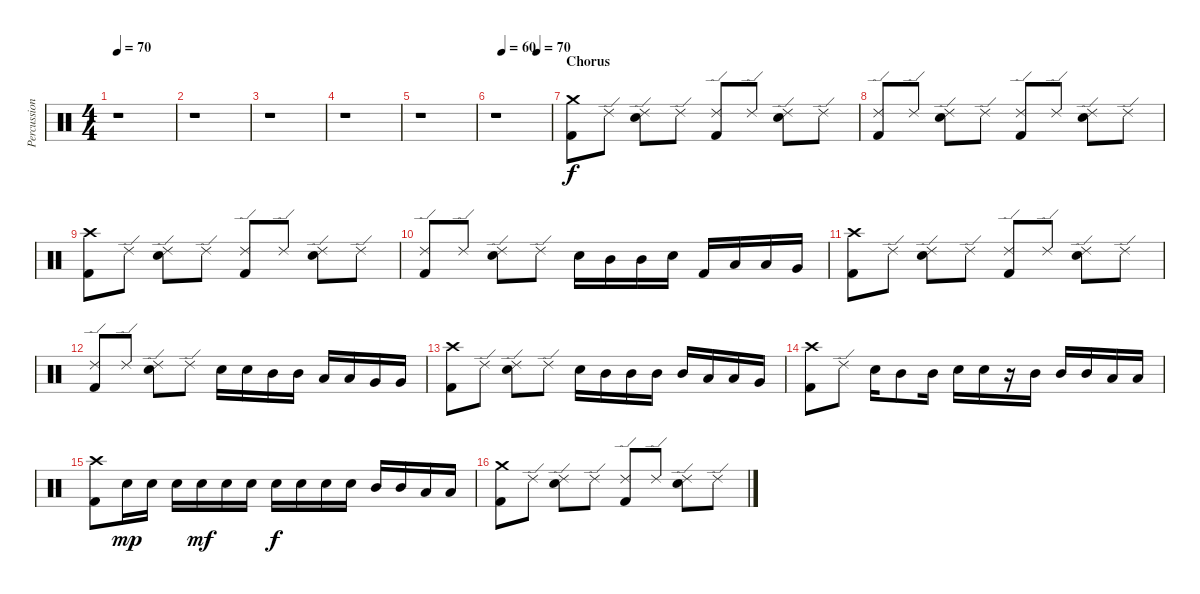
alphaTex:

\track ("Percussion" "Percussion") {instrument percussion}
\staff {score}
\articulation defaults
\ts (4 4)
\tempo 70
\clef neutral
\ks c
r.1{dy f} |
r.1 |
r.1 |
r.1 |
r.1 |
\tempo (60 0.125)
\tempo (70 0.75)
r.1 |
\section ("" "Chorus ")
("Crash medium (hit)" "Kick (hit) 2").8 "Ride (edge) 2".8 ("Ride (edge) 2" "Snare (hit) 2").8 "Ride (edge) 2".8 ("Ride (edge) 2" "Kick (hit) 2").8 "Ride (edge) 2".8 ("Ride (edge) 2" "Snare (hit) 2").8 "Ride (edge) 2".8 |
("Ride (edge) 2" "Kick (hit) 2").8 "Ride (edge) 2".8 ("Ride (edge) 2" "Snare (hit) 2").8 "Ride (edge) 2".8 ("Ride (edge) 2" "Kick (hit) 2").8 "Ride (edge) 2".8 ("Ride (edge) 2" "Snare (hit) 2").8 "Ride (edge) 2".8 |
("Crash high (hit)" "Kick (hit) 2").8 "Ride (edge) 2".8 ("Ride (edge) 2" "Snare (hit) 2").8 "Ride (edge) 2".8 ("Ride (edge) 2" "Kick (hit) 2").8 "Ride (edge) 2".8 ("Ride (edge) 2" "Snare (hit) 2").8 "Ride (edge) 2".8 |
("Ride (edge) 2" "Kick (hit) 2").8 "Ride (edge) 2".8 ("Ride (edge) 2" "Snare (hit) 2").8 "Ride (edge) 2".8 "Snare (hit) 2".16 "Mid Tom (hit)".16 "Mid Tom (hit)".16 "Snare (hit) 2".16 "Kick (hit) 2".16 "Low Tom (hit)".16 "Low Tom (hit)".16 "Very Low Tom (hit)".16 |
("Crash high (hit)" "Kick (hit) 2").8 "Ride (edge) 2".8 ("Ride (edge) 2" "Snare (hit) 2").8 "Ride (edge) 2".8 ("Ride (edge) 2" "Kick (hit) 2").8 "Ride (edge) 2".8 ("Ride (edge) 2" "Snare (hit) 2").8 "Ride (edge) 2".8 |
("Ride (edge) 2" "Kick (hit) 2").8 "Ride (edge) 2".8 ("Ride (edge) 2" "Snare (hit) 2").8 "Ride (edge) 2".8 "Snare (hit) 2".16 "Snare (hit) 2".16 "Mid Tom (hit)".16 "Mid Tom (hit)".16 "Low Tom (hit)".16 "Low Tom (hit)".16 "Very Low Tom (hit)".16 "Very Low Tom (hit)".16 |
("Crash high (hit)" "Kick (hit) 2").8 "Ride (edge) 2".8 ("Ride (edge) 2" "Snare (hit) 2").8 "Ride (edge) 2".8 "Snare (hit) 2".16 "Mid Tom (hit)".16 "Mid Tom (hit)".16 "Mid Tom (hit)".16 "Mid Tom (hit)".16 "Low Tom (hit)".16 "Low Tom (hit)".16 "Very Low Tom (hit)".16 |
("Crash high (hit)" "Kick (hit) 2").8 "Ride (edge) 2".8 "Snare (hit) 2".16 "Mid Tom (hit)".8 "Mid Tom (hit)".16 "Snare (hit) 2".16 "Snare (hit) 2".16 r.16 "Mid Tom (hit)".16 "Mid Tom (hit)".16 "Mid Tom (hit)".16 "Low Tom (hit)".16 "Low Tom (hit)".16 |
("Crash high (hit)" "Kick (hit) 2").8 "Snare (hit) 2".16{dy mp} "Snare (hit) 2".16 "Snare (hit) 2".16 "Snare (hit) 2".16{dy mf} "Snare (hit) 2".16 "Snare (hit) 2".16 "Snare (hit) 2".16{dy f} "Snare (hit) 2".16 "Snare (hit) 2".16 "Snare (hit) 2".16 "Mid Tom (hit)".16 "Mid Tom (hit)".16 "Low Tom (hit)".16 "Low Tom (hit)".16 |
("Crash medium (hit)" "Kick (hit) 2").8 "Ride (edge) 2".8 ("Ride (edge) 2" "Snare (hit) 2").8 "Ride (edge) 2".8 ("Ride (edge) 2" "Kick (hit) 2").8 "Ride (edge) 2".8 ("Ride (edge) 2" "Snare (hit) 2").8 "Ride (edge) 2".8
